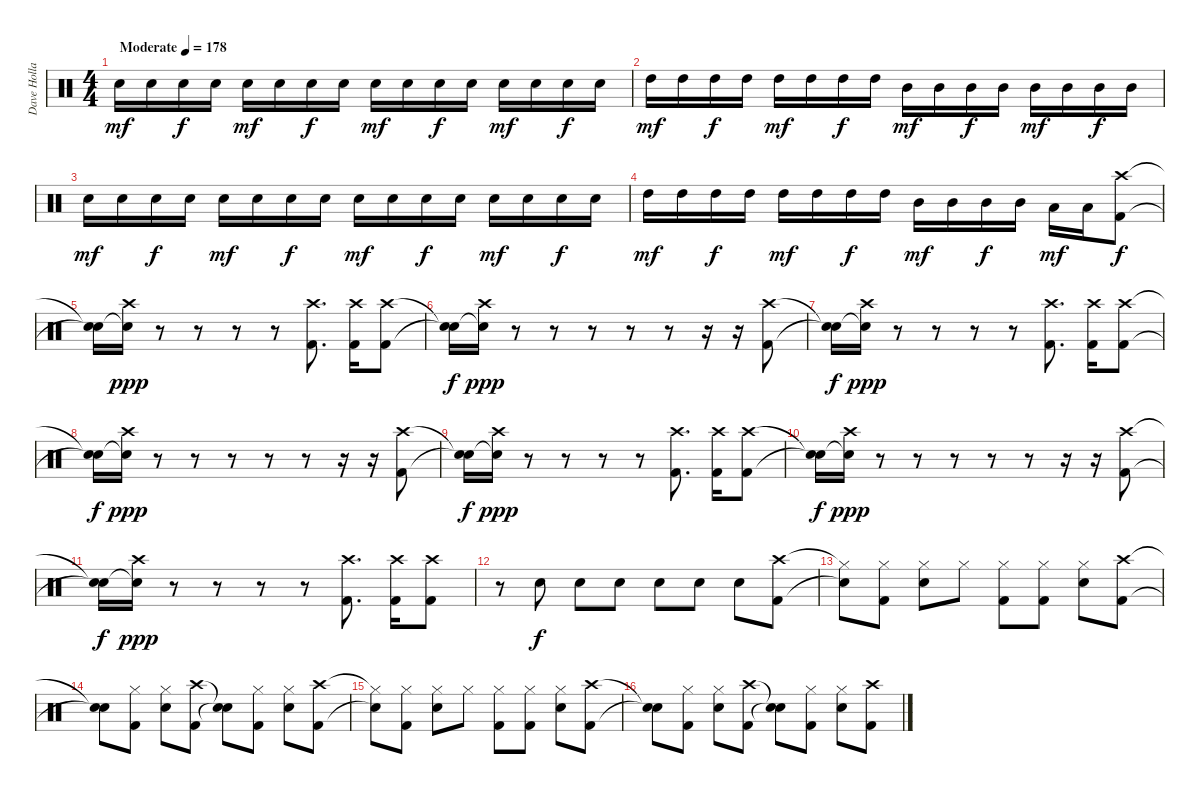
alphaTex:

\track ("Dave Holland" "Dave Holla") {instrument percussion}
\staff {score}
\articulation defaults
\ts (4 4)
\tempo (178 "Moderate")
\clef neutral
\ks c "Snare (hit) 2".16{dy mf} "Snare (hit) 2".16 "Snare (hit) 2".16{dy f} "Snare (hit) 2".16 "Snare (hit) 2".16{dy mf} "Snare (hit) 2".16 "Snare (hit) 2".16{dy f} "Snare (hit) 2".16 "Snare (hit) 2".16{dy mf} "Snare (hit) 2".16 "Snare (hit) 2".16{dy f} "Snare (hit) 2".16 "Snare (hit) 2".16{dy mf} "Snare (hit) 2".16 "Snare (hit) 2".16{dy f} "Snare (hit) 2".16
|
"High Tom (hit)".16{dy mf} "High Tom (hit)".16 "High Tom (hit)".16{dy f} "High Tom (hit)".16 "High Tom (hit)".16{dy mf} "High Tom (hit)".16 "High Tom (hit)".16{dy f} "High Tom (hit)".16 "Mid Tom (hit)".16{dy mf} "Mid Tom (hit)".16 "Mid Tom (hit)".16{dy f} "Mid Tom (hit)".16 "Mid Tom (hit)".16{dy mf} "Mid Tom (hit)".16 "Mid Tom (hit)".16{dy f} "Mid Tom (hit)".16 |
"Snare (hit) 2".16{dy mf} "Snare (hit) 2".16 "Snare (hit) 2".16{dy f} "Snare (hit) 2".16 "Snare (hit) 2".16{dy mf} "Snare (hit) 2".16 "Snare (hit) 2".16{dy f} "Snare (hit) 2".16 "Snare (hit) 2".16{dy mf} "Snare (hit) 2".16 "Snare (hit) 2".16{dy f} "Snare (hit) 2".16 "Snare (hit) 2".16{dy mf} "Snare (hit) 2".16 "Snare (hit) 2".16{dy f} "Snare (hit) 2".16 |
"High Tom (hit)".16{dy mf} "High Tom (hit)".16 "High Tom (hit)".16{dy f} "High Tom (hit)".16 "High Tom (hit)".16{dy mf} "High Tom (hit)".16 "High Tom (hit)".16{dy f} "High Tom (hit)".16 "Mid Tom (hit)".16{dy mf} "Mid Tom (hit)".16 "Mid Tom (hit)".16{dy f} "Mid Tom (hit)".16 "Low Tom (hit)".16{dy mf} "Low Tom (hit)".16 ("Kick (hit) 2" "Crash high (hit)").8{dy f} |
("Snare (hit)"{t} "Snare (hit)"{t}).16 ("Snare (hit)"{t} "Crash high (hit)").16{dy ppp} r.8 r.8 r.8 r.8 ("Kick (hit) 2" "Crash high (hit)").8{d} ("Kick (hit) 2" "Crash high (hit)").16 ("Kick (hit) 2" "Crash high (hit)").8 |
("Snare (hit)"{t} "Snare (hit)"{t}).16{dy f} ("Snare (hit)"{t} "Crash high (hit)").16{dy ppp} r.8 r.8 r.8 r.8 r.8 r.16 r.16 ("Kick (hit) 2" "Crash high (hit)").8 |
("Snare (hit)"{t} "Snare (hit)"{t}).16{dy f} ("Snare (hit)"{t} "Crash high (hit)").16{dy ppp} r.8 r.8 r.8 r.8 ("Kick (hit) 2" "Crash high (hit)").8{d} ("Kick (hit) 2" "Crash high (hit)").16 ("Kick (hit) 2" "Crash high (hit)").8 |
("Snare (hit)"{t} "Snare (hit)"{t}).16{dy f} ("Snare (hit)"{t} "Crash high (hit)").16{dy ppp} r.8 r.8 r.8 r.8 r.8 r.16 r.16 ("Kick (hit) 2" "Crash high (hit)").8 |
("Snare (hit)"{t} "Snare (hit)"{t}).16{dy f} ("Snare (hit)"{t} "Crash high (hit)").16{dy ppp} r.8 r.8 r.8 r.8 ("Kick (hit) 2" "Crash high (hit)").8{d} ("Kick (hit) 2" "Crash high (hit)").16 ("Kick (hit) 2" "Crash high (hit)").8 |
("Snare (hit)"{t} "Snare (hit)"{t}).16{dy f} ("Snare (hit)"{t} "Crash high (hit)").16{dy ppp} r.8 r.8 r.8 r.8 r.8 r.16 r.16 ("Kick (hit) 2" "Crash high (hit)").8 |
("Snare (hit)"{t} "Snare (hit)"{t}).16{dy f} ("Snare (hit)"{t} "Crash high (hit)").16{dy ppp} r.8 r.8 r.8 r.8 ("Kick (hit) 2" "Crash high (hit)").8{d} ("Kick (hit) 2" "Crash high (hit)").16 ("Kick (hit) 2" "Crash high (hit)").8 |
r.8 "Snare (hit) 2".8{dy f} "Snare (hit) 2".8 "Snare (hit) 2".8 "Snare (hit) 2".8 "Snare (hit) 2".8 "Snare (hit) 2".8 ("Crash high (hit)" "Kick (hit) 2").8 |
("Hi-Hat (closed)"{t} "Snare (hit)"{t}).8 ("Hi-Hat (closed)" "Kick (hit) 2").8 ("Hi-Hat (closed)" "Snare (hit) 2").8 "Hi-Hat (closed)".8 ("Hi-Hat (closed)" "Kick (hit) 2").8 ("Hi-Hat (closed)" "Kick (hit) 2").8 ("Hi-Hat (closed)" "Snare (hit) 2").8 ("Crash high (hit)" "Kick (hit) 2").8 |
("Snare (hit)"{t} "Snare (hit)"{t}).8 ("Hi-Hat (closed)" "Kick (hit) 2").8 ("Hi-Hat (closed)" "Snare (hit) 2").8 ("Crash high (hit)" "Kick (hit) 2").8 ("Snare (hit)"{t} "Snare (hit)"{t}).8 ("Hi-Hat (closed)" "Kick (hit) 2").8 ("Hi-Hat (closed)" "Snare (hit) 2").8 ("Crash high (hit)" "Kick (hit) 2").8 |
("Hi-Hat (closed)"{t} "Snare (hit)"{t}).8 ("Hi-Hat (closed)" "Kick (hit) 2").8 ("Hi-Hat (closed)" "Snare (hit) 2").8 "Hi-Hat (closed)".8 ("Hi-Hat (closed)" "Kick (hit) 2").8 ("Hi-Hat (closed)" "Kick (hit) 2").8 ("Hi-Hat (closed)" "Snare (hit) 2").8 ("Crash high (hit)" "Kick (hit) 2").8 |
("Snare (hit)"{t} "Snare (hit)"{t}).8 ("Hi-Hat (closed)" "Kick (hit) 2").8 ("Hi-Hat (closed)" "Snare (hit) 2").8 ("Crash high (hit)" "Kick (hit) 2").8 ("Snare (hit)"{t} "Snare (hit)"{t}).8 ("Hi-Hat (closed)" "Kick (hit) 2").8 ("Hi-Hat (closed)" "Snare (hit) 2").8 ("Crash high (hit)" "Kick (hit) 2").8
